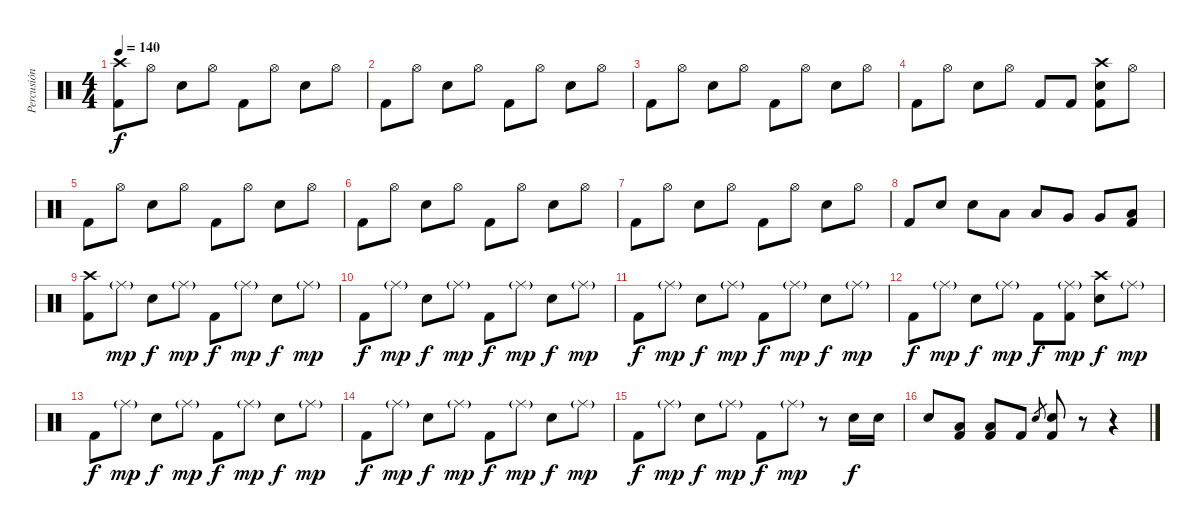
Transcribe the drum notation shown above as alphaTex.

\track ("Percusión" "Percusión") {instrument percussion}
\staff {score}
\articulation defaults
\ts (4 4)
\tempo 140
\clef neutral
\ks c
("Crash high (hit)" "Kick (hit) 2").8{dy f} "Hi-Hat (open)".8 "Electric Snare (hit)".8 "Hi-Hat (open)".8 "Kick (hit) 2".8 "Hi-Hat (open)".8 "Electric Snare (hit)".8 "Hi-Hat (open)".8 |
"Kick (hit) 2".8 "Hi-Hat (open)".8 "Electric Snare (hit)".8 "Hi-Hat (open)".8 "Kick (hit) 2".8 "Hi-Hat (open)".8 "Electric Snare (hit)".8 "Hi-Hat (open)".8 |
"Kick (hit) 2".8 "Hi-Hat (open)".8 "Electric Snare (hit)".8 "Hi-Hat (open)".8 "Kick (hit) 2".8 "Hi-Hat (open)".8 "Electric Snare (hit)".8 "Hi-Hat (open)".8 |
"Kick (hit) 2".8 "Hi-Hat (open)".8 "Electric Snare (hit)".8 "Hi-Hat (open)".8 "Kick (hit) 2".8 "Kick (hit) 2".8 ("Crash high (hit)" "Electric Snare (hit)" "Kick (hit) 2").8 "Hi-Hat (open)".8 |
"Kick (hit) 2".8 "Hi-Hat (open)".8 "Electric Snare (hit)".8 "Hi-Hat (open)".8 "Kick (hit) 2".8 "Hi-Hat (open)".8 "Electric Snare (hit)".8 "Hi-Hat (open)".8 |
"Kick (hit) 2".8 "Hi-Hat (open)".8 "Electric Snare (hit)".8 "Hi-Hat (open)".8 "Kick (hit) 2".8 "Hi-Hat (open)".8 "Electric Snare (hit)".8 "Hi-Hat (open)".8 |
"Kick (hit) 2".8 "Hi-Hat (open)".8 "Electric Snare (hit)".8 "Hi-Hat (open)".8 "Kick (hit) 2".8 "Hi-Hat (open)".8 "Electric Snare (hit)".8 "Hi-Hat (open)".8 |
"Kick (hit) 2".8 "Electric Snare (hit)".8 "Electric Snare (hit)".8 "Low Tom (hit)".8 "Low Tom (hit)".8 "Very Low Tom (hit)".8 "Very Low Tom (hit)".8 ("Low Floor Tom (hit)" "Kick (hit) 2").8 |
("Crash high (hit)" "Kick (hit) 2").8 "Ride (middle)"{g}.8{dy mp} "Electric Snare (hit)".8{dy f} "Ride (middle)"{g}.8{dy mp} "Kick (hit) 2".8{dy f} "Ride (middle)"{g}.8{dy mp} "Electric Snare (hit)".8{dy f} "Ride (middle)"{g}.8{dy mp} |
"Kick (hit) 2".8{dy f} "Ride (middle)"{g}.8{dy mp} "Electric Snare (hit)".8{dy f} "Ride (middle)"{g}.8{dy mp} "Kick (hit) 2".8{dy f} "Ride (middle)"{g}.8{dy mp} "Electric Snare (hit)".8{dy f} "Ride (middle)"{g}.8{dy mp} |
"Kick (hit) 2".8{dy f} "Ride (middle)"{g}.8{dy mp} "Electric Snare (hit)".8{dy f} "Ride (middle)"{g}.8{dy mp} "Kick (hit) 2".8{dy f} "Ride (middle)"{g}.8{dy mp} "Electric Snare (hit)".8{dy f} "Ride (middle)"{g}.8{dy mp} |
"Kick (hit) 2".8{dy f} "Ride (middle)"{g}.8{dy mp} "Electric Snare (hit)".8{dy f} "Ride (middle)"{g}.8{dy mp} "Kick (hit) 2".8{dy f} ("Ride (middle)"{g} "Kick (hit) 2").8{dy mp} ("Crash high (hit)" "Electric Snare (hit)").8{dy f} "Ride (middle)"{g}.8{dy mp} |
"Kick (hit) 2".8{dy f} "Ride (middle)"{g}.8{dy mp} "Electric Snare (hit)".8{dy f} "Ride (middle)"{g}.8{dy mp} "Kick (hit) 2".8{dy f} "Ride (middle)"{g}.8{dy mp} "Electric Snare (hit)".8{dy f} "Ride (middle)"{g}.8{dy mp} |
"Kick (hit) 2".8{dy f} "Ride (middle)"{g}.8{dy mp} "Electric Snare (hit)".8{dy f} "Ride (middle)"{g}.8{dy mp} "Kick (hit) 2".8{dy f} "Ride (middle)"{g}.8{dy mp} "Electric Snare (hit)".8{dy f} "Ride (middle)"{g}.8{dy mp} |
"Kick (hit) 2".8{dy f} "Ride (middle)"{g}.8{dy mp} "Electric Snare (hit)".8{dy f} "Ride (middle)"{g}.8{dy mp} "Kick (hit) 2".8{dy f} "Ride (middle)"{g}.8{dy mp} r.8 "Electric Snare (hit)".16{dy f} "Electric Snare (hit)".16 |
"Electric Snare (hit)".8 ("Low Tom (hit)" "Kick (hit) 2").8 ("Low Tom (hit)" "Kick (hit) 2").8 "Kick (hit) 2".8 "Electric Snare (hit)".8{gr} ("Electric Snare (hit)" "Kick (hit) 2").8 r.8 r.4
